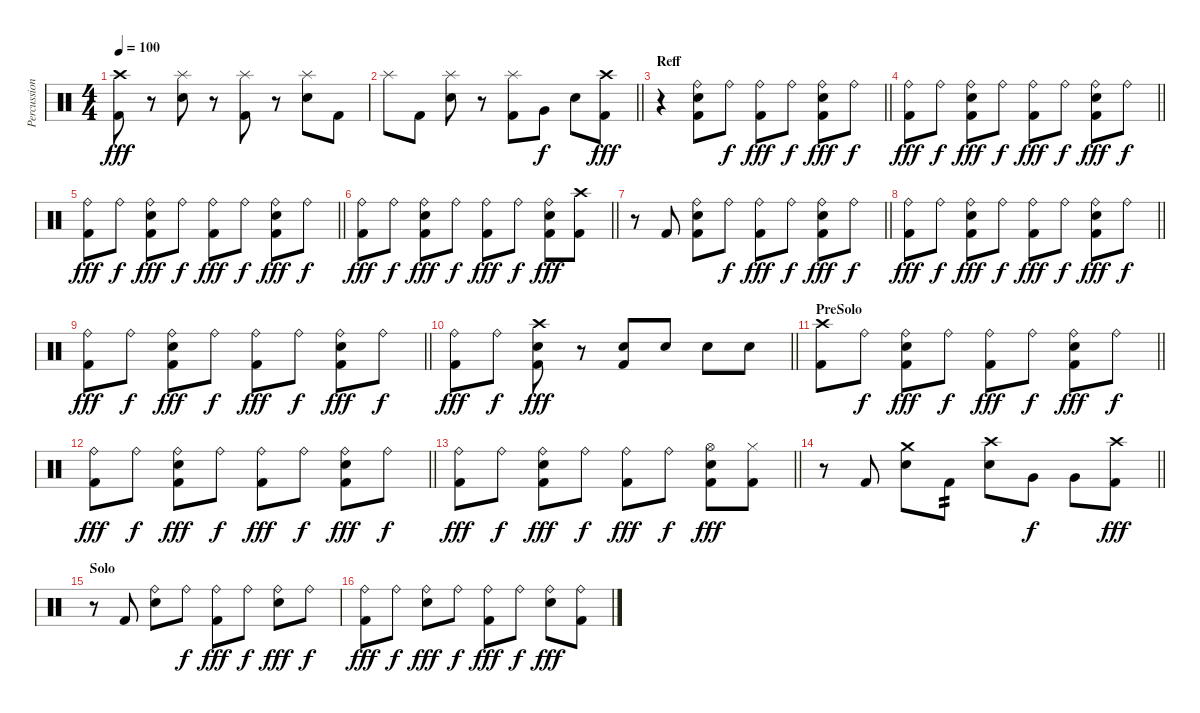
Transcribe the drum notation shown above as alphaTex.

\track ("Percussion" "Percussion") {instrument percussion}
\staff {score}
\articulation defaults
\ts (4 4)
\tempo 100
\clef neutral
\ks c
("Crash high (hit)" "Kick (hit) 2").8{dy fff} r.8 ("Splash (hit)" "Electric Snare (hit)").8 r.8 ("Splash (hit)" "Kick (hit) 2").8 r.8 ("Splash (hit)" "Electric Snare (hit)").8 "Kick (hit) 2".8 |
\barLineRight lightlight "Splash (hit)".8 "Kick (hit) 2".8
("Splash (hit)" "Electric Snare (hit)").8 r.8 ("Splash (hit)" "Kick (hit) 2").8 "Very Low Tom (hit)".8{dy f} "Electric Snare (hit)".8 ("Crash high (hit)" "Kick (hit) 2").8{dy fff} |
\section ("" "Reff")
\barLineRight lightlight
r.4 ("Ride (bell)" "Electric Snare (hit)" "Kick (hit) 2").8 "Ride (bell)".8{dy f} ("Ride (bell)" "Kick (hit) 2").8{dy fff} "Ride (bell)".8{dy f} ("Ride (bell)" "Electric Snare (hit)" "Kick (hit) 2").8{dy fff} "Ride (bell)".8{dy f} |
\barLineRight lightlight
("Ride (bell)" "Kick (hit) 2").8{dy fff} "Ride (bell)".8{dy f} ("Ride (bell)" "Electric Snare (hit)" "Kick (hit) 2").8{dy fff} "Ride (bell)".8{dy f} ("Ride (bell)" "Kick (hit) 2").8{dy fff} "Ride (bell)".8{dy f} ("Ride (bell)" "Electric Snare (hit)" "Kick (hit) 2").8{dy fff} "Ride (bell)".8{dy f} |
\barLineRight lightlight
("Ride (bell)" "Kick (hit) 2").8{dy fff} "Ride (bell)".8{dy f} ("Ride (bell)" "Electric Snare (hit)" "Kick (hit) 2").8{dy fff} "Ride (bell)".8{dy f} ("Ride (bell)" "Kick (hit) 2").8{dy fff} "Ride (bell)".8{dy f} ("Ride (bell)" "Electric Snare (hit)" "Kick (hit) 2").8{dy fff} "Ride (bell)".8{dy f} |
\barLineRight lightlight
("Ride (bell)" "Kick (hit) 2").8{dy fff} "Ride (bell)".8{dy f} ("Ride (bell)" "Electric Snare (hit)" "Kick (hit) 2").8{dy fff} "Ride (bell)".8{dy f} ("Ride (bell)" "Kick (hit) 2").8{dy fff} "Ride (bell)".8{dy f} ("Ride (bell)" "Electric Snare (hit)" "Kick (hit) 2").8{dy fff} ("Crash high (hit)" "Kick (hit) 2").8 |
\barLineRight lightlight
r.8 "Kick (hit) 2".8 ("Ride (bell)" "Electric Snare (hit)" "Kick (hit) 2").8 "Ride (bell)".8{dy f} ("Ride (bell)" "Kick (hit) 2").8{dy fff} "Ride (bell)".8{dy f} ("Ride (bell)" "Electric Snare (hit)" "Kick (hit) 2").8{dy fff} "Ride (bell)".8{dy f} |
\barLineRight lightlight
("Ride (bell)" "Kick (hit) 2").8{dy fff} "Ride (bell)".8{dy f} ("Ride (bell)" "Electric Snare (hit)" "Kick (hit) 2").8{dy fff} "Ride (bell)".8{dy f} ("Ride (bell)" "Kick (hit) 2").8{dy fff} "Ride (bell)".8{dy f} ("Ride (bell)" "Electric Snare (hit)" "Kick (hit) 2").8{dy fff} "Ride (bell)".8{dy f} |
\barLineRight lightlight
("Ride (bell)" "Kick (hit) 2").8{dy fff} "Ride (bell)".8{dy f} ("Ride (bell)" "Electric Snare (hit)" "Kick (hit) 2").8{dy fff} "Ride (bell)".8{dy f} ("Ride (bell)" "Kick (hit) 2").8{dy fff} "Ride (bell)".8{dy f} ("Ride (bell)" "Electric Snare (hit)" "Kick (hit) 2").8{dy fff} "Ride (bell)".8{dy f} |
\barLineRight lightlight
("Ride (bell)" "Kick (hit) 2").8{dy fff} "Ride (bell)".8{dy f} ("Crash high (hit)" "Electric Snare (hit)" "Kick (hit) 2").8{dy fff} r.8 ("Electric Snare (hit)" "Kick (hit) 2").8 "Electric Snare (hit)".8 "Electric Snare (hit)".8 "Electric Snare (hit)".8 |
\section ("" "PreSolo")
\barLineRight lightlight
("Crash high (hit)" "Kick (hit) 2").8 "Ride (bell)".8{dy f} ("Ride (bell)" "Electric Snare (hit)" "Kick (hit) 2").8{dy fff} "Ride (bell)".8{dy f} ("Ride (bell)" "Kick (hit) 2").8{dy fff} "Ride (bell)".8{dy f} ("Ride (bell)" "Electric Snare (hit)" "Kick (hit) 2").8{dy fff} "Ride (bell)".8{dy f} |
\barLineRight lightlight
("Ride (bell)" "Kick (hit) 2").8{dy fff} "Ride (bell)".8{dy f} ("Ride (bell)" "Electric Snare (hit)" "Kick (hit) 2").8{dy fff} "Ride (bell)".8{dy f} ("Ride (bell)" "Kick (hit) 2").8{dy fff} "Ride (bell)".8{dy f} ("Ride (bell)" "Electric Snare (hit)" "Kick (hit) 2").8{dy fff} "Ride (bell)".8{dy f} |
\barLineRight lightlight
("Ride (bell)" "Kick (hit) 2").8{dy fff} "Ride (bell)".8{dy f} ("Ride (bell)" "Electric Snare (hit)" "Kick (hit) 2").8{dy fff} "Ride (bell)".8{dy f} ("Ride (bell)" "Kick (hit) 2").8{dy fff} "Ride (bell)".8{dy f} ("Hi-Hat (open)" "Electric Snare (hit)" "Kick (hit) 2").8{dy fff} ("Hi-Hat (closed)" "Kick (hit) 2").8 |
\barLineRight lightlight
r.8 "Kick (hit) 2".8 ("Crash medium (hit)" "Electric Snare (hit)").8 "Kick (hit) 2".8{tp 2} ("Crash high (hit)" "Electric Snare (hit)").8 "Very Low Tom (hit)".8{dy f} "Very Low Tom (hit)".8 ("Crash high (hit)" "Kick (hit) 2").8{dy fff} |
\section ("" "Solo")
r.8 "Kick (hit) 2".8 ("Ride (bell)" "Electric Snare (hit)").8 "Ride (bell)".8{dy f} ("Ride (bell)" "Kick (hit) 2").8{dy fff} "Ride (bell)".8{dy f} ("Ride (bell)" "Electric Snare (hit)").8{dy fff} "Ride (bell)".8{dy f} |
("Ride (bell)" "Kick (hit) 2").8{dy fff} "Ride (bell)".8{dy f} ("Ride (bell)" "Electric Snare (hit)").8{dy fff} "Ride (bell)".8{dy f} ("Ride (bell)" "Kick (hit) 2").8{dy fff} "Ride (bell)".8{dy f} ("Ride (bell)" "Electric Snare (hit)").8{dy fff} ("Ride (bell)" "Kick (hit) 2").8
